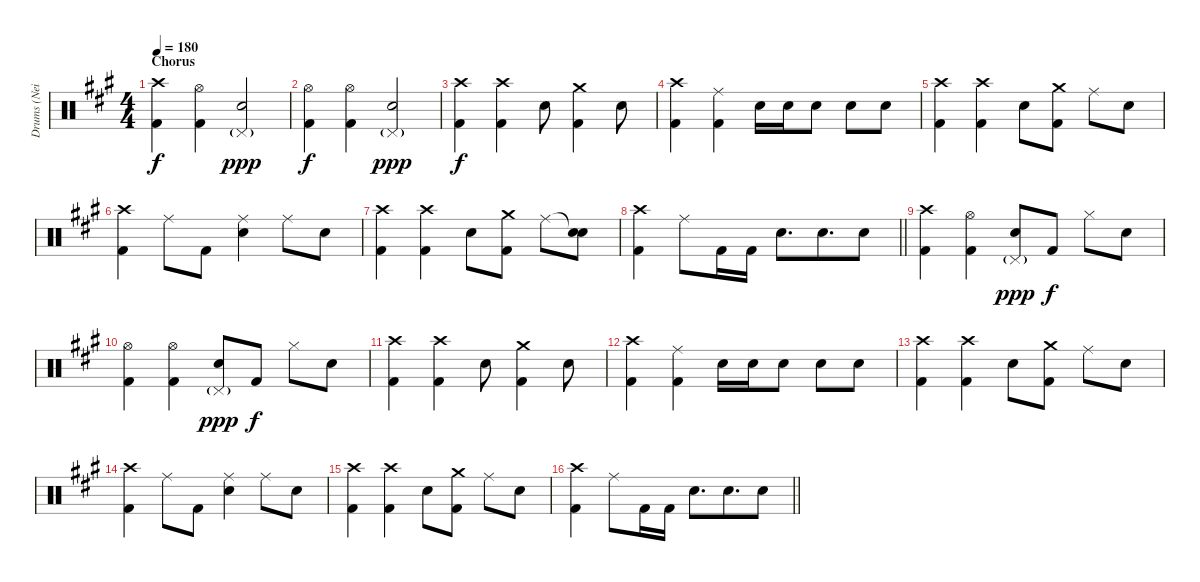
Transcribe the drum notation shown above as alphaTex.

\track ("Drums (Neil Sanderson)" "Drums (Nei") {instrument percussion}
\staff {score}
\articulation defaults
\ts (4 4)
\section ("" "Chorus")
\tempo 180
\clef neutral
\ks f#minor
("Crash high (hit)" "Kick (hit) 2").4{dy f} ("Hi-Hat (open)" "Kick (hit) 2").4 ("Pedal Hi-Hat (hit)"{g} "Electric Snare (hit)").2{dy ppp} |
("Hi-Hat (open)" "Kick (hit) 2").4{dy f} ("Hi-Hat (open)" "Kick (hit) 2").4 ("Pedal Hi-Hat (hit)"{g} "Electric Snare (hit)").2{dy ppp} |
("Crash high (hit)" "Kick (hit) 2").4{dy f} ("Crash high (hit)" "Kick (hit) 2").4 "Electric Snare (hit)".8 ("Crash medium (hit)" "Kick (hit) 2").4 "Electric Snare (hit)".8 |
("Crash high (hit)" "Kick (hit) 2").4 ("Ride (middle)" "Kick (hit) 2").4 "Electric Snare (hit)".16 "Electric Snare (hit)".16 "Electric Snare (hit)".8 "Electric Snare (hit)".8 "Electric Snare (hit)".8 |
("Crash high (hit)" "Kick (hit) 2").4 ("Crash high (hit)" "Kick (hit) 2").4 "Electric Snare (hit)".8 ("Crash medium (hit)" "Kick (hit) 2").8 "Ride (middle)".8 "Electric Snare (hit)".8 |
("Crash high (hit)" "Kick (hit) 2").4 "Ride (middle)".8 "Kick (hit) 2".8 ("Ride (middle)" "Electric Snare (hit)").4 "Ride (middle)".8 "Electric Snare (hit)".8 |
("Crash high (hit)" "Kick (hit) 2").4 ("Crash high (hit)" "Kick (hit) 2").4 "Electric Snare (hit)".8 ("Crash medium (hit)" "Kick (hit) 2").8 "Ride (middle)".8 ("Snare (hit)"{t} "Electric Snare (hit)").8 |
\barLineRight lightlight
("Crash high (hit)" "Kick (hit) 2").4 "Ride (middle)".8 "Kick (hit) 2".16 "Kick (hit) 2".16 "Electric Snare (hit)".8{d} "Electric Snare (hit)".8{d beam merge} "Electric Snare (hit)".8 |
("Crash high (hit)" "Kick (hit) 2").4 ("Hi-Hat (open)" "Kick (hit) 2").4 ("Pedal Hi-Hat (hit)"{g} "Electric Snare (hit)").8{dy ppp} "Kick (hit) 2".8{dy f} "Hi-Hat (closed)".8 "Electric Snare (hit)".8 |
("Hi-Hat (open)" "Kick (hit) 2").4 ("Hi-Hat (open)" "Kick (hit) 2").4 ("Pedal Hi-Hat (hit)"{g} "Electric Snare (hit)").8{dy ppp} "Kick (hit) 2".8{dy f} "Hi-Hat (closed)".8 "Electric Snare (hit)".8 |
("Crash high (hit)" "Kick (hit) 2").4 ("Crash high (hit)" "Kick (hit) 2").4 "Electric Snare (hit)".8 ("Crash medium (hit)" "Kick (hit) 2").4 "Electric Snare (hit)".8 |
("Crash high (hit)" "Kick (hit) 2").4 ("Ride (middle)" "Kick (hit) 2").4 "Electric Snare (hit)".16 "Electric Snare (hit)".16 "Electric Snare (hit)".8{beam split} "Electric Snare (hit)".8 "Electric Snare (hit)".8 |
("Crash high (hit)" "Kick (hit) 2").4 ("Crash high (hit)" "Kick (hit) 2").4 "Electric Snare (hit)".8 ("Crash medium (hit)" "Kick (hit) 2").8 "Ride (middle)".8 "Electric Snare (hit)".8 |
("Crash high (hit)" "Kick (hit) 2").4 "Ride (middle)".8 "Kick (hit) 2".8 ("Ride (middle)" "Electric Snare (hit)").4 "Ride (middle)".8 "Electric Snare (hit)".8 |
("Crash high (hit)" "Kick (hit) 2").4 ("Crash high (hit)" "Kick (hit) 2").4 "Electric Snare (hit)".8 ("Crash medium (hit)" "Kick (hit) 2").8 "Ride (middle)".8 "Electric Snare (hit)".8 |
\barLineRight lightlight
("Crash high (hit)" "Kick (hit) 2").4 "Ride (middle)".8 "Kick (hit) 2".16 "Kick (hit) 2".16 "Electric Snare (hit)".8{d} "Electric Snare (hit)".8{d beam merge} "Electric Snare (hit)".8
